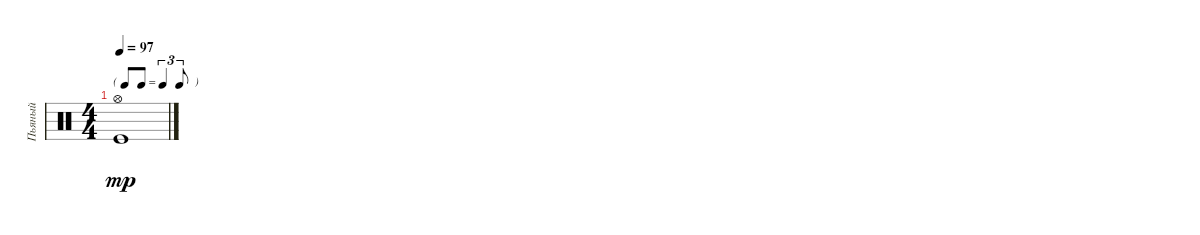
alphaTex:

\track ("Пьяный" "Пьяный") {instrument percussion}
\staff {score}
\articulation defaults
\ts (4 4)
\tf triplet8th
\tempo 97
\clef neutral
\ks c
("Hi-Hat (open)" "Kick (hit)").1{dy mp}
